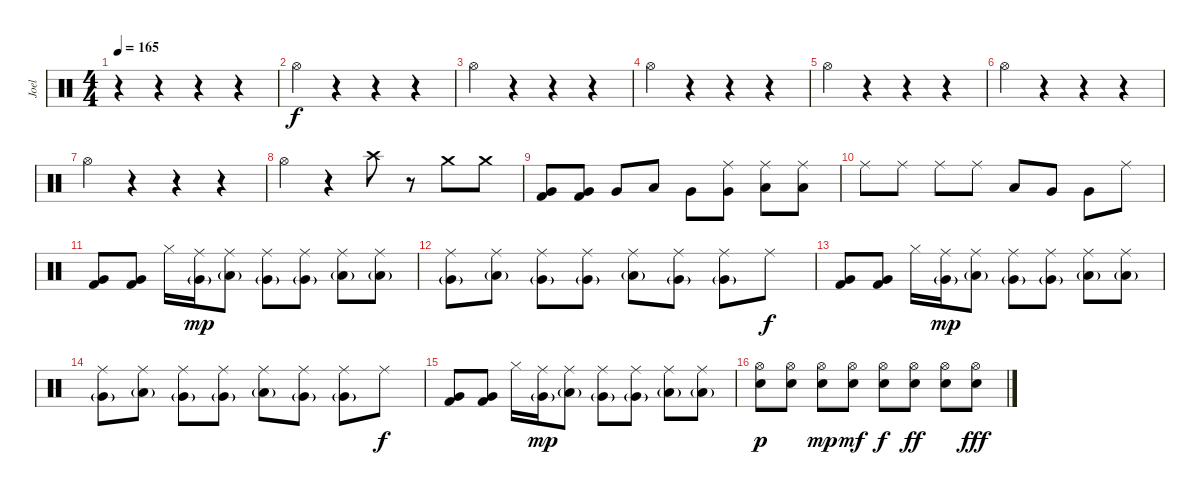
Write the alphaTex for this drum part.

\track ("Joel" "Joel") {instrument percussion}
\staff {score}
\articulation defaults
\ts (4 4)
\tempo 165
\clef neutral
\ks c
r.4{dy f} r.4 r.4 r.4 |
"Hi-Hat (open)".4 r.4 r.4 r.4 |
"Hi-Hat (open)".4 r.4 r.4 r.4 |
"Hi-Hat (open)".4 r.4 r.4 r.4 |
"Hi-Hat (open)".4 r.4 r.4 r.4 |
"Hi-Hat (open)".4 r.4 r.4 r.4 |
"Hi-Hat (open)".4 r.4 r.4 r.4 |
"Hi-Hat (open)".4 r.4 "Crash high (hit)".8 r.8 "Crash medium (hit)".8 "Crash medium (hit)".8 |
("Very Low Tom (hit)" "Kick (hit) 2").8 ("Very Low Tom (hit)" "Kick (hit) 2").8 "Very Low Tom (hit)".8 "Low Tom (hit)".8 "Very Low Tom (hit)".8 ("Ride (middle)" "Very Low Tom (hit)").8 ("Ride (middle)" "Low Tom (hit)").8 ("Ride (middle)" "Low Floor Tom (hit)").8 |
"Ride (middle)".8 "Ride (middle)".8 "Ride (middle)".8 "Ride (middle)".8 "Low Tom (hit)".8 "Very Low Tom (hit)".8 "Very Low Tom (hit)".8 "Ride (middle)".8 |
("Very Low Tom (hit)" "Kick (hit) 2").8 ("Very Low Tom (hit)" "Kick (hit) 2").8 "Hi-Hat (closed)".16 ("Ride (middle)" "Very Low Tom (hit)"{g}).16{dy mp} ("Ride (middle)" "Low Tom (hit)"{g}).8 ("Ride (middle)" "Very Low Tom (hit)"{g}).8 ("Ride (middle)" "Very Low Tom (hit)"{g}).8 ("Ride (middle)" "Low Tom (hit)"{g}).8 ("Ride (middle)" "Low Floor Tom (hit)"{g}).8 |
("Ride (middle)" "Very Low Tom (hit)"{g}).8 ("Ride (middle)" "Low Tom (hit)"{g}).8 ("Ride (middle)" "Very Low Tom (hit)"{g}).8 ("Ride (middle)" "Very Low Tom (hit)"{g}).8 ("Ride (middle)" "Low Tom (hit)"{g}).8 ("Ride (middle)" "Very Low Tom (hit)"{g}).8 ("Ride (middle)" "Very Low Tom (hit)"{g}).8 "Ride (middle)".8{dy f} |
("Very Low Tom (hit)" "Kick (hit) 2").8 ("Very Low Tom (hit)" "Kick (hit) 2").8 "Hi-Hat (closed)".16 ("Ride (middle)" "Very Low Tom (hit)"{g}).16{dy mp} ("Ride (middle)" "Low Tom (hit)"{g}).8 ("Ride (middle)" "Very Low Tom (hit)"{g}).8 ("Ride (middle)" "Very Low Tom (hit)"{g}).8 ("Ride (middle)" "Low Tom (hit)"{g}).8 ("Ride (middle)" "Low Floor Tom (hit)"{g}).8 |
("Ride (middle)" "Very Low Tom (hit)"{g}).8 ("Ride (middle)" "Low Tom (hit)"{g}).8 ("Ride (middle)" "Very Low Tom (hit)"{g}).8 ("Ride (middle)" "Very Low Tom (hit)"{g}).8 ("Ride (middle)" "Low Tom (hit)"{g}).8 ("Ride (middle)" "Very Low Tom (hit)"{g}).8 ("Ride (middle)" "Very Low Tom (hit)"{g}).8 "Ride (middle)".8{dy f} |
("Very Low Tom (hit)" "Kick (hit) 2").8 ("Very Low Tom (hit)" "Kick (hit) 2").8 "Hi-Hat (closed)".16 ("Ride (middle)" "Very Low Tom (hit)"{g}).16{dy mp} ("Ride (middle)" "Low Tom (hit)"{g}).8 ("Ride (middle)" "Very Low Tom (hit)"{g}).8 ("Ride (middle)" "Very Low Tom (hit)"{g}).8 ("Ride (middle)" "Low Tom (hit)"{g}).8 ("Ride (middle)" "Low Floor Tom (hit)"{g}).8 |
("Hi-Hat (open)" "Electric Snare (hit)").8{dy p} ("Hi-Hat (open)" "Electric Snare (hit)").8 ("Hi-Hat (open)" "Electric Snare (hit)").8{dy mp} ("Hi-Hat (open)" "Electric Snare (hit)").8{dy mf} ("Hi-Hat (open)" "Electric Snare (hit)").8{dy f} ("Hi-Hat (open)" "Electric Snare (hit)").8{dy ff} ("Hi-Hat (open)" "Electric Snare (hit)").8 ("Hi-Hat (open)" "Electric Snare (hit)").8{dy fff}
